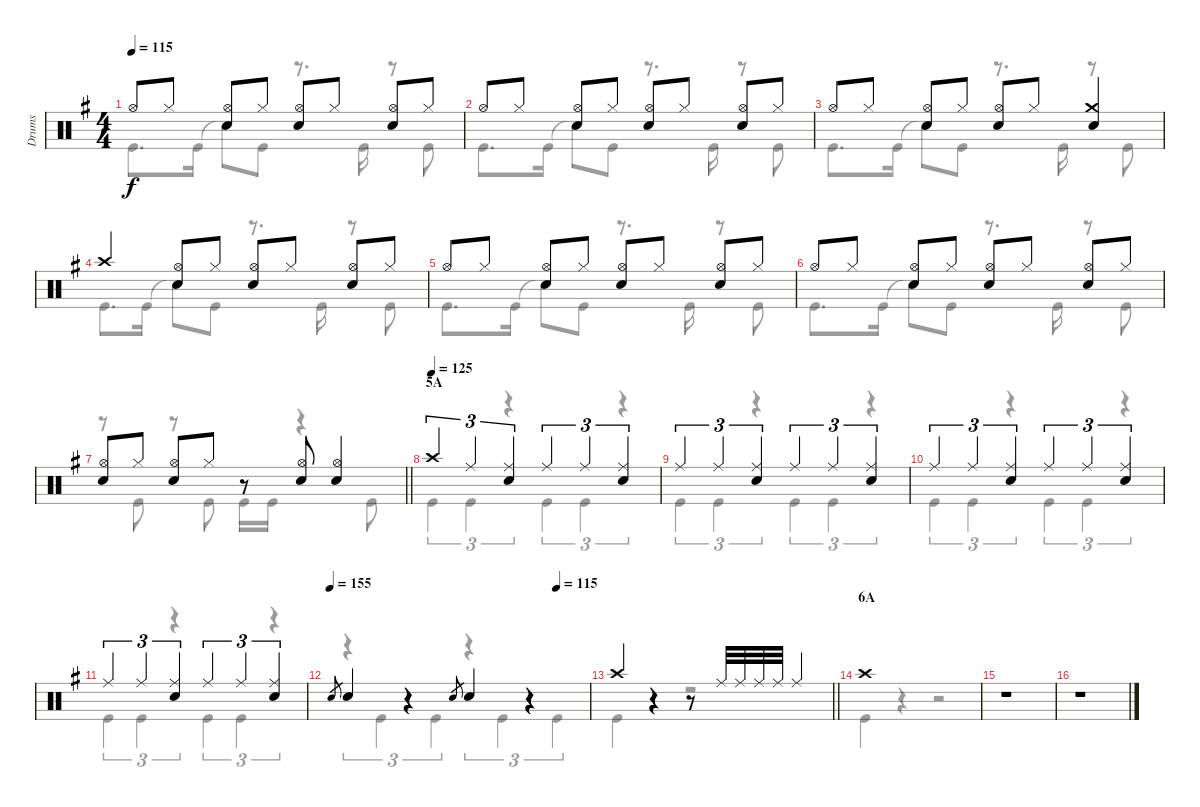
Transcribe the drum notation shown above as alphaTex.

\track ("Drums" "Drums") {instrument percussion}
\staff {score}
\articulation defaults
\voice
\ts (4 4)
\tempo 115
\clef neutral
\ks g "Hi-Hat (open)".8{dy f} "Hi-Hat (closed)".8
("Hi-Hat (open)" "Snare (hit) 2").8 "Hi-Hat (closed)".8 ("Hi-Hat (open)" "Snare (hit) 2").8 "Hi-Hat (closed)".8 ("Hi-Hat (open)" "Snare (hit) 2").8 "Hi-Hat (closed)".8 |
"Hi-Hat (open)".8 "Hi-Hat (closed)".8 ("Hi-Hat (open)" "Snare (hit) 2").8 "Hi-Hat (closed)".8 ("Hi-Hat (open)" "Snare (hit) 2").8 "Hi-Hat (closed)".8 ("Hi-Hat (open)" "Snare (hit) 2").8 "Hi-Hat (closed)".8 |
"Hi-Hat (open)".8 "Hi-Hat (closed)".8 ("Hi-Hat (open)" "Snare (hit) 2").8 "Hi-Hat (closed)".8 ("Hi-Hat (open)" "Snare (hit) 2").8 "Hi-Hat (closed)".8 ("Crash medium (hit)" "Snare (hit) 2").4 |
"Crash high (hit)".4 ("Hi-Hat (open)" "Snare (hit) 2").8 "Hi-Hat (closed)".8 ("Hi-Hat (open)" "Snare (hit) 2").8 "Hi-Hat (closed)".8 ("Hi-Hat (open)" "Snare (hit) 2").8 "Hi-Hat (closed)".8 |
"Hi-Hat (open)".8 "Hi-Hat (closed)".8 ("Hi-Hat (open)" "Snare (hit) 2").8 "Hi-Hat (closed)".8 ("Hi-Hat (open)" "Snare (hit) 2").8 "Hi-Hat (closed)".8 ("Hi-Hat (open)" "Snare (hit) 2").8 "Hi-Hat (closed)".8 |
"Hi-Hat (open)".8 "Hi-Hat (closed)".8 ("Hi-Hat (open)" "Snare (hit) 2").8 "Hi-Hat (closed)".8 ("Hi-Hat (open)" "Snare (hit) 2").8 "Hi-Hat (closed)".8 ("Hi-Hat (open)" "Snare (hit) 2").8 "Hi-Hat (closed)".8 |
\barLineRight lightlight
("Hi-Hat (open)" "Snare (hit) 2").8 "Hi-Hat (closed)".8 ("Hi-Hat (open)" "Snare (hit) 2").8 "Hi-Hat (closed)".8 r.8 ("Hi-Hat (open)" "Snare (hit) 2").8 ("Hi-Hat (open)" "Snare (hit) 2").4 |
\section ("" "5A")
\tempo (125)
"Crash high (hit)".4{tu (3 2)} "Ride (middle)".4{tu (3 2)} ("Ride (middle)" "Snare (hit) 2").4{tu (3 2)} "Ride (middle)".4{tu (3 2)} "Ride (middle)".4{tu (3 2)} ("Ride (middle)" "Snare (hit) 2").4{tu (3 2)} |
"Ride (middle)".4{tu (3 2)} "Ride (middle)".4{tu (3 2)} ("Ride (middle)" "Snare (hit) 2").4{tu (3 2)} "Ride (middle)".4{tu (3 2)} "Ride (middle)".4{tu (3 2)} ("Ride (middle)" "Snare (hit) 2").4{tu (3 2)} |
"Ride (middle)".4{tu (3 2)} "Ride (middle)".4{tu (3 2)} ("Ride (middle)" "Snare (hit) 2").4{tu (3 2)} "Ride (middle)".4{tu (3 2)} "Ride (middle)".4{tu (3 2)} ("Ride (middle)" "Snare (hit) 2").4{tu (3 2)} |
"Ride (middle)".4{tu (3 2)} "Ride (middle)".4{tu (3 2)} ("Ride (middle)" "Snare (hit) 2").4{tu (3 2)} "Ride (middle)".4{tu (3 2)} "Ride (middle)".4{tu (3 2)} ("Ride (middle)" "Snare (hit) 2").4{tu (3 2)} |
\tempo 155
\tempo (115 0.875)
"Snare (hit) 2".8{gr} "Snare (hit) 2".4 r.4 "Snare (hit) 2".8{gr} "Snare (hit) 2".4 r.4 |
\barLineRight lightlight "Crash high (hit)".4
r.4 r.8 "Ride (middle)".32 "Ride (middle)".32 "Ride (middle)".32 "Ride (middle)".32 "Ride (middle)".4 |
\section ("" "6A")
"Crash high (hit)".1 |
r.1 |
r.1
\voice
\clef neutral
\ottava regular
\simile none
\ks g "Kick (hit)".8{d dy f} "Kick (hit)".16 "Snare (hit)"{t}.8 "Kick (hit)".8
r.8{d} "Kick (hit)".16 r.8 "Kick (hit)".8 |
"Kick (hit)".8{d} "Kick (hit)".16 "Snare (hit)"{t}.8 "Kick (hit)".8 r.8{d} "Kick (hit)".16 r.8 "Kick (hit)".8 |
"Kick (hit)".8{d} "Kick (hit)".16 "Snare (hit)"{t}.8 "Kick (hit)".8 r.8{d} "Kick (hit)".16 r.8 "Kick (hit)".8 |
"Kick (hit)".8{d} "Kick (hit)".16 "Snare (hit)"{t}.8 "Kick (hit)".8 r.8{d} "Kick (hit)".16 r.8 "Kick (hit)".8 |
"Kick (hit)".8{d} "Kick (hit)".16 "Snare (hit)"{t}.8 "Kick (hit)".8 r.8{d} "Kick (hit)".16 r.8 "Kick (hit)".8 |
"Kick (hit)".8{d} "Kick (hit)".16 "Snare (hit)"{t}.8 "Kick (hit)".8 r.8{d} "Kick (hit)".16 r.8 "Kick (hit)".8 |
\barLineRight lightlight
r.8 "Kick (hit)".8 r.8 "Kick (hit)".8 "Kick (hit)".16 "Kick (hit)".16 r.4 "Kick (hit)".8 |
"Kick (hit)".4{tu (3 2)} "Kick (hit)".4{tu (3 2)} r.4{tu (3 2)} "Kick (hit)".4{tu (3 2)} "Kick (hit)".4{tu (3 2)} r.4{tu (3 2)} |
"Kick (hit)".4{tu (3 2)} "Kick (hit)".4{tu (3 2)} r.4{tu (3 2)} "Kick (hit)".4{tu (3 2)} "Kick (hit)".4{tu (3 2)} r.4{tu (3 2)} |
"Kick (hit)".4{tu (3 2)} "Kick (hit)".4{tu (3 2)} r.4{tu (3 2)} "Kick (hit)".4{tu (3 2)} "Kick (hit)".4{tu (3 2)} r.4{tu (3 2)} |
"Kick (hit)".4{tu (3 2)} "Kick (hit)".4{tu (3 2)} r.4{tu (3 2)} "Kick (hit)".4{tu (3 2)} "Kick (hit)".4{tu (3 2)} r.4{tu (3 2)} |
r.4{tu (3 2)} "Kick (hit)".4{tu (3 2)} "Kick (hit)".4{tu (3 2)} r.4{tu (3 2)} "Kick (hit)".4{tu (3 2)} "Kick (hit)".4{tu (3 2)} |
\barLineRight lightlight "Kick (hit)".4
r.4 r.2 |
"Kick (hit)".4 r.4 r.2 |
r.1 |
r.1
